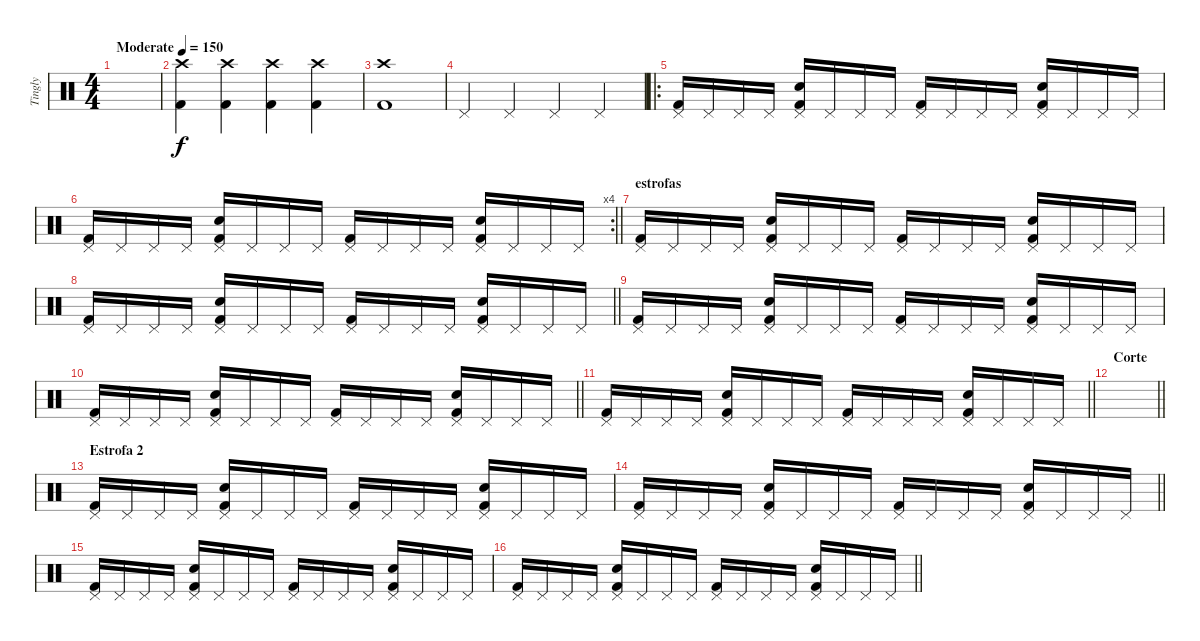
\track ("Tingly" "Tingly") {instrument percussion}
\staff {score}
\articulation defaults
\ts (4 4)
\tempo (150 "Moderate")
\clef neutral
\ks c
|
("Crash high (hit)" "Kick (hit) 2").4 ("Crash high (hit)" "Kick (hit) 2").4 ("Crash high (hit)" "Kick (hit) 2").4 ("Crash high (hit)" "Kick (hit) 2").4 |
("Crash high (hit)" "Kick (hit) 2").1 |
"Pedal Hi-Hat (hit)".4 "Pedal Hi-Hat (hit)".4 "Pedal Hi-Hat (hit)".4 "Pedal Hi-Hat (hit)".4 |
\ro
("Pedal Hi-Hat (hit)" "Kick (hit) 2").16 "Pedal Hi-Hat (hit)".16 "Pedal Hi-Hat (hit)".16 "Pedal Hi-Hat (hit)".16 ("Electric Snare (hit)" "Pedal Hi-Hat (hit)" "Kick (hit) 2").16 "Pedal Hi-Hat (hit)".16 "Pedal Hi-Hat (hit)".16 "Pedal Hi-Hat (hit)".16 ("Pedal Hi-Hat (hit)" "Kick (hit) 2").16 "Pedal Hi-Hat (hit)".16 "Pedal Hi-Hat (hit)".16 "Pedal Hi-Hat (hit)".16 ("Electric Snare (hit)" "Pedal Hi-Hat (hit)" "Kick (hit) 2").16 "Pedal Hi-Hat (hit)".16 "Pedal Hi-Hat (hit)".16 "Pedal Hi-Hat (hit)".16 |
\rc 4
\barLineRight lightlight
("Pedal Hi-Hat (hit)" "Kick (hit) 2").16 "Pedal Hi-Hat (hit)".16 "Pedal Hi-Hat (hit)".16 "Pedal Hi-Hat (hit)".16 ("Electric Snare (hit)" "Pedal Hi-Hat (hit)" "Kick (hit) 2").16 "Pedal Hi-Hat (hit)".16 "Pedal Hi-Hat (hit)".16 "Pedal Hi-Hat (hit)".16 ("Pedal Hi-Hat (hit)" "Kick (hit) 2").16 "Pedal Hi-Hat (hit)".16 "Pedal Hi-Hat (hit)".16 "Pedal Hi-Hat (hit)".16 ("Electric Snare (hit)" "Pedal Hi-Hat (hit)" "Kick (hit) 2").16 "Pedal Hi-Hat (hit)".16 "Pedal Hi-Hat (hit)".16 "Pedal Hi-Hat (hit)".16 |
\section ("" "estrofas")
("Pedal Hi-Hat (hit)" "Kick (hit) 2").16 "Pedal Hi-Hat (hit)".16 "Pedal Hi-Hat (hit)".16 "Pedal Hi-Hat (hit)".16 ("Electric Snare (hit)" "Pedal Hi-Hat (hit)" "Kick (hit) 2").16 "Pedal Hi-Hat (hit)".16 "Pedal Hi-Hat (hit)".16 "Pedal Hi-Hat (hit)".16 ("Pedal Hi-Hat (hit)" "Kick (hit) 2").16 "Pedal Hi-Hat (hit)".16 "Pedal Hi-Hat (hit)".16 "Pedal Hi-Hat (hit)".16 ("Electric Snare (hit)" "Pedal Hi-Hat (hit)" "Kick (hit) 2").16 "Pedal Hi-Hat (hit)".16 "Pedal Hi-Hat (hit)".16 "Pedal Hi-Hat (hit)".16 |
\barLineRight lightlight
("Pedal Hi-Hat (hit)" "Kick (hit) 2").16 "Pedal Hi-Hat (hit)".16 "Pedal Hi-Hat (hit)".16 "Pedal Hi-Hat (hit)".16 ("Electric Snare (hit)" "Pedal Hi-Hat (hit)" "Kick (hit) 2").16 "Pedal Hi-Hat (hit)".16 "Pedal Hi-Hat (hit)".16 "Pedal Hi-Hat (hit)".16 ("Pedal Hi-Hat (hit)" "Kick (hit) 2").16 "Pedal Hi-Hat (hit)".16 "Pedal Hi-Hat (hit)".16 "Pedal Hi-Hat (hit)".16 ("Electric Snare (hit)" "Pedal Hi-Hat (hit)" "Kick (hit) 2").16 "Pedal Hi-Hat (hit)".16 "Pedal Hi-Hat (hit)".16 "Pedal Hi-Hat (hit)".16 |
("Pedal Hi-Hat (hit)" "Kick (hit) 2").16 "Pedal Hi-Hat (hit)".16 "Pedal Hi-Hat (hit)".16 "Pedal Hi-Hat (hit)".16 ("Electric Snare (hit)" "Pedal Hi-Hat (hit)" "Kick (hit) 2").16 "Pedal Hi-Hat (hit)".16 "Pedal Hi-Hat (hit)".16 "Pedal Hi-Hat (hit)".16 ("Pedal Hi-Hat (hit)" "Kick (hit) 2").16 "Pedal Hi-Hat (hit)".16 "Pedal Hi-Hat (hit)".16 "Pedal Hi-Hat (hit)".16 ("Electric Snare (hit)" "Pedal Hi-Hat (hit)" "Kick (hit) 2").16 "Pedal Hi-Hat (hit)".16 "Pedal Hi-Hat (hit)".16 "Pedal Hi-Hat (hit)".16 |
\barLineRight lightlight
("Pedal Hi-Hat (hit)" "Kick (hit) 2").16 "Pedal Hi-Hat (hit)".16 "Pedal Hi-Hat (hit)".16 "Pedal Hi-Hat (hit)".16 ("Electric Snare (hit)" "Pedal Hi-Hat (hit)" "Kick (hit) 2").16 "Pedal Hi-Hat (hit)".16 "Pedal Hi-Hat (hit)".16 "Pedal Hi-Hat (hit)".16 ("Pedal Hi-Hat (hit)" "Kick (hit) 2").16 "Pedal Hi-Hat (hit)".16 "Pedal Hi-Hat (hit)".16 "Pedal Hi-Hat (hit)".16 ("Electric Snare (hit)" "Pedal Hi-Hat (hit)" "Kick (hit) 2").16 "Pedal Hi-Hat (hit)".16 "Pedal Hi-Hat (hit)".16 "Pedal Hi-Hat (hit)".16 |
\barLineRight lightlight
("Pedal Hi-Hat (hit)" "Kick (hit) 2").16 "Pedal Hi-Hat (hit)".16 "Pedal Hi-Hat (hit)".16 "Pedal Hi-Hat (hit)".16 ("Electric Snare (hit)" "Pedal Hi-Hat (hit)" "Kick (hit) 2").16 "Pedal Hi-Hat (hit)".16 "Pedal Hi-Hat (hit)".16 "Pedal Hi-Hat (hit)".16 ("Pedal Hi-Hat (hit)" "Kick (hit) 2").16 "Pedal Hi-Hat (hit)".16 "Pedal Hi-Hat (hit)".16 "Pedal Hi-Hat (hit)".16 ("Electric Snare (hit)" "Pedal Hi-Hat (hit)" "Kick (hit) 2").16 "Pedal Hi-Hat (hit)".16 "Pedal Hi-Hat (hit)".16 "Pedal Hi-Hat (hit)".16 |
\section ("" "Corte")
\barLineRight lightlight
|
\section ("" "Estrofa 2")
("Pedal Hi-Hat (hit)" "Kick (hit) 2").16 "Pedal Hi-Hat (hit)".16 "Pedal Hi-Hat (hit)".16 "Pedal Hi-Hat (hit)".16 ("Electric Snare (hit)" "Pedal Hi-Hat (hit)" "Kick (hit) 2").16 "Pedal Hi-Hat (hit)".16 "Pedal Hi-Hat (hit)".16 "Pedal Hi-Hat (hit)".16 ("Pedal Hi-Hat (hit)" "Kick (hit) 2").16 "Pedal Hi-Hat (hit)".16 "Pedal Hi-Hat (hit)".16 "Pedal Hi-Hat (hit)".16 ("Electric Snare (hit)" "Pedal Hi-Hat (hit)" "Kick (hit) 2").16 "Pedal Hi-Hat (hit)".16 "Pedal Hi-Hat (hit)".16 "Pedal Hi-Hat (hit)".16 |
\barLineRight lightlight
("Pedal Hi-Hat (hit)" "Kick (hit) 2").16 "Pedal Hi-Hat (hit)".16 "Pedal Hi-Hat (hit)".16 "Pedal Hi-Hat (hit)".16 ("Electric Snare (hit)" "Pedal Hi-Hat (hit)" "Kick (hit) 2").16 "Pedal Hi-Hat (hit)".16 "Pedal Hi-Hat (hit)".16 "Pedal Hi-Hat (hit)".16 ("Pedal Hi-Hat (hit)" "Kick (hit) 2").16 "Pedal Hi-Hat (hit)".16 "Pedal Hi-Hat (hit)".16 "Pedal Hi-Hat (hit)".16 ("Electric Snare (hit)" "Pedal Hi-Hat (hit)" "Kick (hit) 2").16 "Pedal Hi-Hat (hit)".16 "Pedal Hi-Hat (hit)".16 "Pedal Hi-Hat (hit)".16 |
("Pedal Hi-Hat (hit)" "Kick (hit) 2").16 "Pedal Hi-Hat (hit)".16 "Pedal Hi-Hat (hit)".16 "Pedal Hi-Hat (hit)".16 ("Electric Snare (hit)" "Pedal Hi-Hat (hit)" "Kick (hit) 2").16 "Pedal Hi-Hat (hit)".16 "Pedal Hi-Hat (hit)".16 "Pedal Hi-Hat (hit)".16 ("Pedal Hi-Hat (hit)" "Kick (hit) 2").16 "Pedal Hi-Hat (hit)".16 "Pedal Hi-Hat (hit)".16 "Pedal Hi-Hat (hit)".16 ("Electric Snare (hit)" "Pedal Hi-Hat (hit)" "Kick (hit) 2").16 "Pedal Hi-Hat (hit)".16 "Pedal Hi-Hat (hit)".16 "Pedal Hi-Hat (hit)".16 |
\barLineRight lightlight
("Pedal Hi-Hat (hit)" "Kick (hit) 2").16 "Pedal Hi-Hat (hit)".16 "Pedal Hi-Hat (hit)".16 "Pedal Hi-Hat (hit)".16 ("Electric Snare (hit)" "Pedal Hi-Hat (hit)" "Kick (hit) 2").16 "Pedal Hi-Hat (hit)".16 "Pedal Hi-Hat (hit)".16 "Pedal Hi-Hat (hit)".16 ("Pedal Hi-Hat (hit)" "Kick (hit) 2").16 "Pedal Hi-Hat (hit)".16 "Pedal Hi-Hat (hit)".16 "Pedal Hi-Hat (hit)".16 ("Electric Snare (hit)" "Pedal Hi-Hat (hit)" "Kick (hit) 2").16 "Pedal Hi-Hat (hit)".16 "Pedal Hi-Hat (hit)".16 "Pedal Hi-Hat (hit)".16
